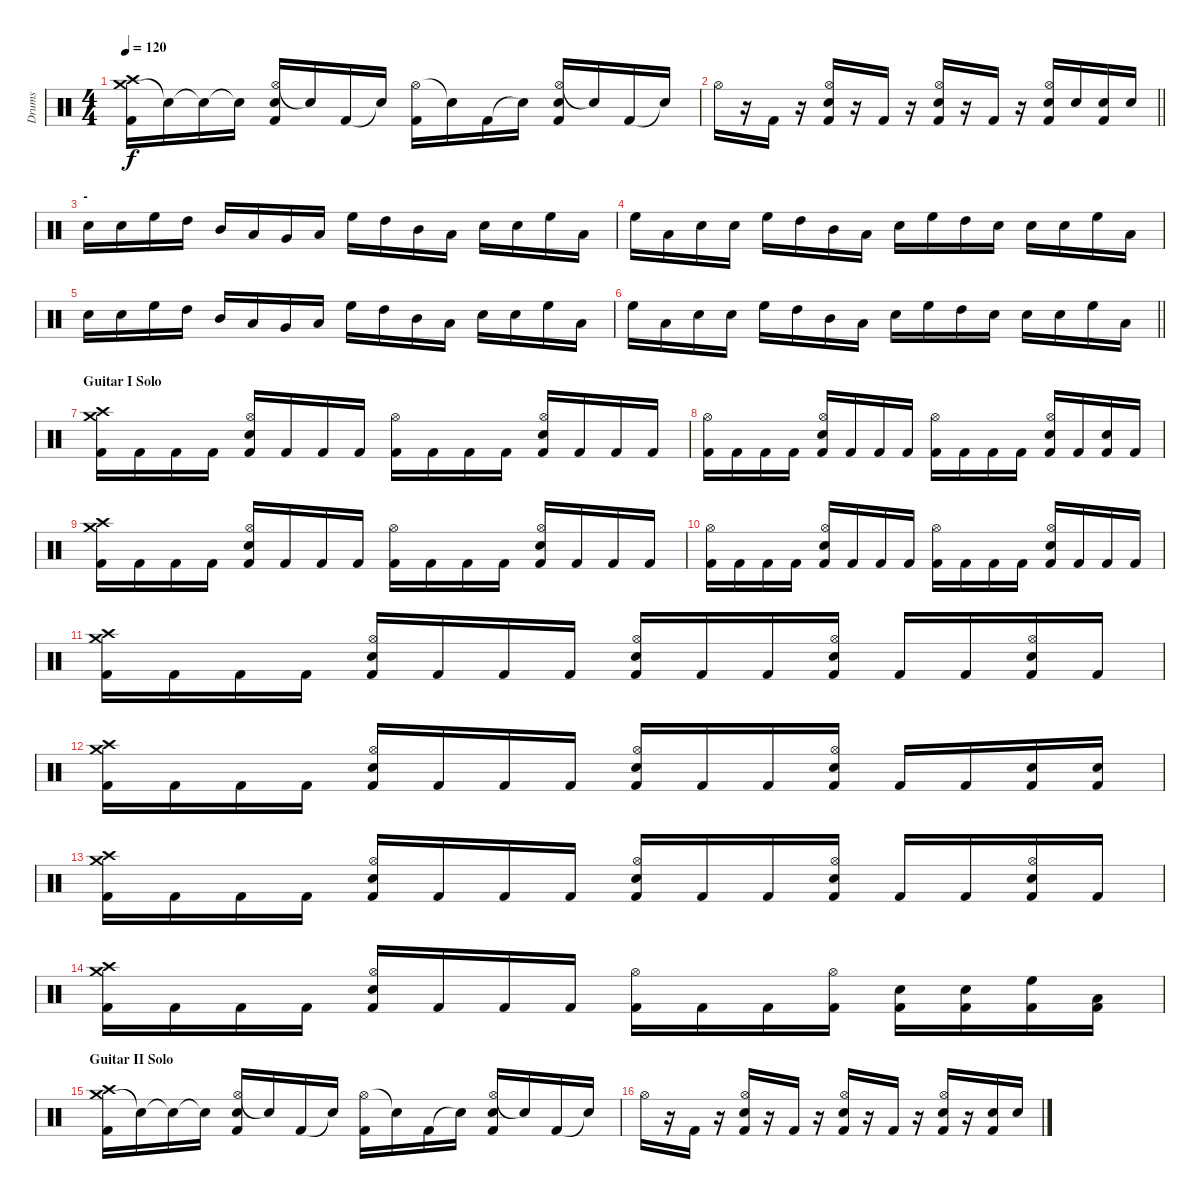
\track ("Drums" "Drums") {instrument percussion}
\staff {score}
\articulation defaults
\ts (4 4)
\tempo 120
\clef neutral
\ks c
("Crash medium (hit)" "Crash high (hit)" "Kick (hit) 2").16{dy f} "Snare (hit)"{t}.16 "Snare (hit)"{t}.16 "Snare (hit)"{t}.16 ("Hi-Hat (open)" "Electric Snare (hit)" "Kick (hit) 2").16 "Snare (hit)"{t}.16 "Kick (hit) 2".16 "Snare (hit)"{t}.16 ("Hi-Hat (open)" "Kick (hit) 2").16 "Snare (hit)"{t}.16 "Kick (hit) 2".16 "Snare (hit)"{t}.16 ("Hi-Hat (open)" "Electric Snare (hit)" "Kick (hit) 2").16 "Snare (hit)"{t}.16 "Kick (hit) 2".16 "Snare (hit)"{t}.16 |
\barLineRight lightlight "Hi-Hat (open)".16
r.16 "Kick (hit) 2".16 r.16 ("Hi-Hat (open)" "Electric Snare (hit)" "Kick (hit) 2").16 r.16 "Kick (hit) 2".16 r.16 ("Hi-Hat (open)" "Electric Snare (hit)" "Kick (hit) 2").16 r.16 "Kick (hit) 2".16 r.16 ("Hi-Hat (open)" "Electric Snare (hit)" "Kick (hit) 2").16 "Electric Snare (hit)".16 ("Electric Snare (hit)" "Kick (hit) 2").16 "Electric Snare (hit)".16 |
\section ("" "-")
"Electric Snare (hit)".16 "Electric Snare (hit)".16 "High Floor Tom (hit)".16 "High Tom (hit)".16 "Mid Tom (hit)".16 "Low Tom (hit)".16 "Very Low Tom (hit)".16 "Low Floor Tom (hit)".16 "High Floor Tom (hit)".16 "High Tom (hit)".16 "Mid Tom (hit)".16 "Low Tom (hit)".16 "Electric Snare (hit)".16 "Electric Snare (hit)".16 "High Floor Tom (hit)".16 "Low Tom (hit)".16 |
"High Floor Tom (hit)".16 "Low Tom (hit)".16 "Electric Snare (hit)".16 "Electric Snare (hit)".16 "High Floor Tom (hit)".16 "High Tom (hit)".16 "Mid Tom (hit)".16 "Low Tom (hit)".16 "Electric Snare (hit)".16 "High Floor Tom (hit)".16 "High Tom (hit)".16 "Electric Snare (hit)".16 "Electric Snare (hit)".16 "Electric Snare (hit)".16 "High Floor Tom (hit)".16 "Low Tom (hit)".16 |
"Electric Snare (hit)".16 "Electric Snare (hit)".16 "High Floor Tom (hit)".16 "High Tom (hit)".16 "Mid Tom (hit)".16 "Low Tom (hit)".16 "Very Low Tom (hit)".16 "Low Floor Tom (hit)".16 "High Floor Tom (hit)".16 "High Tom (hit)".16 "Mid Tom (hit)".16 "Low Tom (hit)".16 "Electric Snare (hit)".16 "Electric Snare (hit)".16 "High Floor Tom (hit)".16 "Low Tom (hit)".16 |
\barLineRight lightlight "High Floor Tom (hit)".16 "Low Tom (hit)".16 "Electric Snare (hit)".16 "Electric Snare (hit)".16 "High Floor Tom (hit)".16 "High Tom (hit)".16 "Mid Tom (hit)".16 "Low Tom (hit)".16 "Electric Snare (hit)".16 "High Floor Tom (hit)".16 "High Tom (hit)".16 "Electric Snare (hit)".16 "Electric Snare (hit)".16 "Electric Snare (hit)".16 "High Floor Tom (hit)".16 "Low Tom (hit)".16
|
\section ("" "Guitar I Solo")
("Crash medium (hit)" "Crash high (hit)" "Kick (hit) 2").16 "Kick (hit) 2".16 "Kick (hit) 2".16 "Kick (hit) 2".16 ("Hi-Hat (open)" "Electric Snare (hit)" "Kick (hit) 2").16 "Kick (hit) 2".16 "Kick (hit) 2".16 "Kick (hit) 2".16 ("Hi-Hat (open)" "Kick (hit) 2").16 "Kick (hit) 2".16 "Kick (hit) 2".16 "Kick (hit) 2".16 ("Hi-Hat (open)" "Electric Snare (hit)" "Kick (hit) 2").16 "Kick (hit) 2".16 "Kick (hit) 2".16 "Kick (hit) 2".16 |
("Hi-Hat (open)" "Kick (hit) 2").16 "Kick (hit) 2".16 "Kick (hit) 2".16 "Kick (hit) 2".16 ("Hi-Hat (open)" "Electric Snare (hit)" "Kick (hit) 2").16 "Kick (hit) 2".16 "Kick (hit) 2".16 "Kick (hit) 2".16 ("Hi-Hat (open)" "Kick (hit) 2").16 "Kick (hit) 2".16 "Kick (hit) 2".16 "Kick (hit) 2".16 ("Hi-Hat (open)" "Electric Snare (hit)" "Kick (hit) 2").16 "Kick (hit) 2".16 ("Electric Snare (hit)" "Kick (hit) 2").16 "Kick (hit) 2".16 |
("Crash medium (hit)" "Crash high (hit)" "Kick (hit) 2").16 "Kick (hit) 2".16 "Kick (hit) 2".16 "Kick (hit) 2".16 ("Hi-Hat (open)" "Electric Snare (hit)" "Kick (hit) 2").16 "Kick (hit) 2".16 "Kick (hit) 2".16 "Kick (hit) 2".16 ("Hi-Hat (open)" "Kick (hit) 2").16 "Kick (hit) 2".16 "Kick (hit) 2".16 "Kick (hit) 2".16 ("Hi-Hat (open)" "Electric Snare (hit)" "Kick (hit) 2").16 "Kick (hit) 2".16 "Kick (hit) 2".16 "Kick (hit) 2".16 |
("Hi-Hat (open)" "Kick (hit) 2").16 "Kick (hit) 2".16 "Kick (hit) 2".16 "Kick (hit) 2".16 ("Hi-Hat (open)" "Electric Snare (hit)" "Kick (hit) 2").16 "Kick (hit) 2".16 "Kick (hit) 2".16 "Kick (hit) 2".16 ("Hi-Hat (open)" "Kick (hit) 2").16 "Kick (hit) 2".16 "Kick (hit) 2".16 "Kick (hit) 2".16 ("Hi-Hat (open)" "Electric Snare (hit)" "Kick (hit) 2").16 "Kick (hit) 2".16 "Kick (hit) 2".16 "Kick (hit) 2".16 |
("Crash medium (hit)" "Crash high (hit)" "Kick (hit) 2").16 "Kick (hit) 2".16 "Kick (hit) 2".16 "Kick (hit) 2".16 ("Hi-Hat (open)" "Electric Snare (hit)" "Kick (hit) 2").16 "Kick (hit) 2".16 "Kick (hit) 2".16 "Kick (hit) 2".16 ("Hi-Hat (open)" "Electric Snare (hit)" "Kick (hit) 2").16 "Kick (hit) 2".16 "Kick (hit) 2".16 ("Hi-Hat (open)" "Electric Snare (hit)" "Kick (hit) 2").16 "Kick (hit) 2".16 "Kick (hit) 2".16 ("Hi-Hat (open)" "Electric Snare (hit)" "Kick (hit) 2").16 "Kick (hit) 2".16 |
("Crash medium (hit)" "Crash high (hit)" "Kick (hit) 2").16 "Kick (hit) 2".16 "Kick (hit) 2".16 "Kick (hit) 2".16 ("Hi-Hat (open)" "Electric Snare (hit)" "Kick (hit) 2").16 "Kick (hit) 2".16 "Kick (hit) 2".16 "Kick (hit) 2".16 ("Hi-Hat (open)" "Electric Snare (hit)" "Kick (hit) 2").16 "Kick (hit) 2".16 "Kick (hit) 2".16 ("Hi-Hat (open)" "Electric Snare (hit)" "Kick (hit) 2").16 "Kick (hit) 2".16 "Kick (hit) 2".16 ("Electric Snare (hit)" "Kick (hit) 2").16 ("Electric Snare (hit)" "Kick (hit) 2").16 |
("Crash medium (hit)" "Crash high (hit)" "Kick (hit) 2").16 "Kick (hit) 2".16 "Kick (hit) 2".16 "Kick (hit) 2".16 ("Hi-Hat (open)" "Electric Snare (hit)" "Kick (hit) 2").16 "Kick (hit) 2".16 "Kick (hit) 2".16 "Kick (hit) 2".16 ("Hi-Hat (open)" "Electric Snare (hit)" "Kick (hit) 2").16 "Kick (hit) 2".16 "Kick (hit) 2".16 ("Hi-Hat (open)" "Electric Snare (hit)" "Kick (hit) 2").16 "Kick (hit) 2".16 "Kick (hit) 2".16 ("Hi-Hat (open)" "Electric Snare (hit)" "Kick (hit) 2").16 "Kick (hit) 2".16 |
("Crash medium (hit)" "Crash high (hit)" "Kick (hit) 2").16 "Kick (hit) 2".16 "Kick (hit) 2".16 "Kick (hit) 2".16 ("Hi-Hat (open)" "Electric Snare (hit)" "Kick (hit) 2").16 "Kick (hit) 2".16 "Kick (hit) 2".16 "Kick (hit) 2".16 ("Hi-Hat (open)" "Kick (hit) 2").16 "Kick (hit) 2".16 "Kick (hit) 2".16 ("Hi-Hat (open)" "Kick (hit) 2").16 ("Electric Snare (hit)" "Kick (hit) 2").16 ("Electric Snare (hit)" "Kick (hit) 2").16 ("High Floor Tom (hit)" "Kick (hit) 2").16 ("Low Tom (hit)" "Kick (hit) 2").16 |
\section ("" "Guitar II Solo")
("Crash medium (hit)" "Crash high (hit)" "Kick (hit) 2").16 "Snare (hit)"{t}.16 "Snare (hit)"{t}.16 "Snare (hit)"{t}.16 ("Hi-Hat (open)" "Electric Snare (hit)" "Kick (hit) 2").16 "Snare (hit)"{t}.16 "Kick (hit) 2".16 "Snare (hit)"{t}.16 ("Hi-Hat (open)" "Kick (hit) 2").16 "Snare (hit)"{t}.16 "Kick (hit) 2".16 "Snare (hit)"{t}.16 ("Hi-Hat (open)" "Electric Snare (hit)" "Kick (hit) 2").16 "Snare (hit)"{t}.16 "Kick (hit) 2".16 "Snare (hit)"{t}.16 |
"Hi-Hat (open)".16 r.16 "Kick (hit) 2".16 r.16 ("Hi-Hat (open)" "Electric Snare (hit)" "Kick (hit) 2").16 r.16 "Kick (hit) 2".16 r.16 ("Hi-Hat (open)" "Electric Snare (hit)" "Kick (hit) 2").16 r.16 "Kick (hit) 2".16 r.16 ("Hi-Hat (open)" "Electric Snare (hit)" "Kick (hit) 2").16 r.16 ("Electric Snare (hit)" "Kick (hit) 2").16 "Electric Snare (hit)".16
